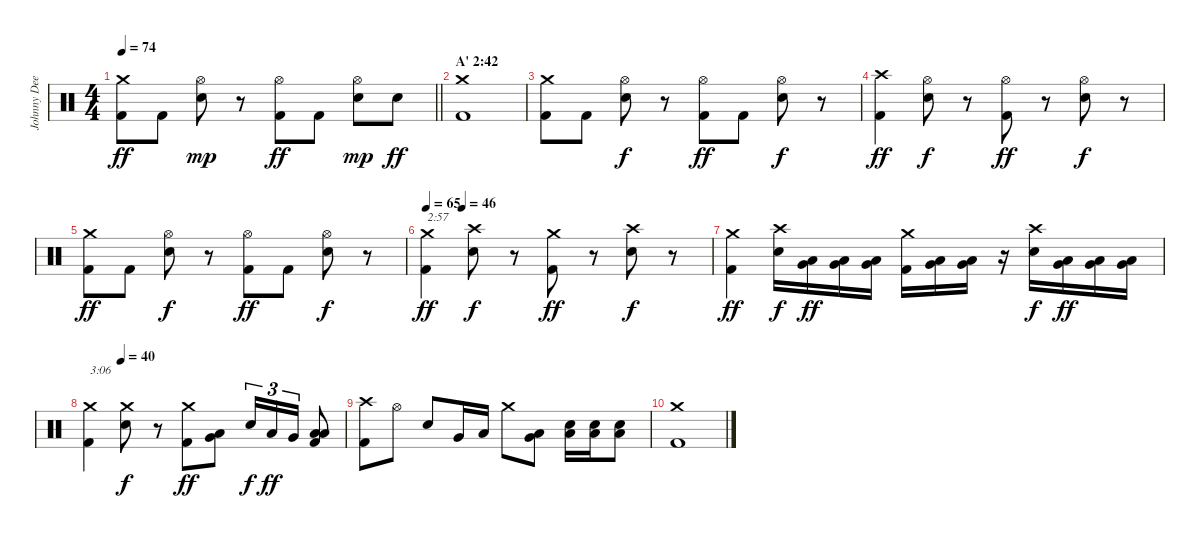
\track ("Johnny Dee (drums)" "Johnny Dee") {instrument percussion}
\staff {score}
\articulation defaults
\ts (4 4)
\tempo 74
\clef neutral
\barLineRight lightlight
\ks c
("Crash medium (hit)" "Kick (hit) 2").8{dy ff} "Kick (hit) 2".8 ("Hi-Hat (open)" "Electric Snare (hit)").8{dy mp} r.8 ("Hi-Hat (open)" "Kick (hit) 2").8{dy ff} "Kick (hit) 2".8 ("Hi-Hat (open)" "Electric Snare (hit)").8{dy mp} "Electric Snare (hit)".8{dy ff} |
\section ("" "A' 2:42")
("Crash medium (hit)" "Kick (hit) 2").1 |
("Crash medium (hit)" "Kick (hit) 2").8 "Kick (hit) 2".8 ("Hi-Hat (open)" "Electric Snare (hit)").8{dy f} r.8 ("Hi-Hat (open)" "Kick (hit) 2").8{dy ff} "Kick (hit) 2".8 ("Hi-Hat (open)" "Electric Snare (hit)").8{dy f} r.8 |
("Crash high (hit)" "Kick (hit) 2").4{dy ff} ("Hi-Hat (open)" "Electric Snare (hit)").8{dy f} r.8 ("Hi-Hat (open)" "Kick (hit) 2").8{dy ff} r.8 ("Hi-Hat (open)" "Electric Snare (hit)").8{dy f} r.8 |
("Crash medium (hit)" "Kick (hit) 2").8{dy ff} "Kick (hit) 2".8 ("Hi-Hat (open)" "Electric Snare (hit)").8{dy f} r.8 ("Hi-Hat (open)" "Kick (hit) 2").8{dy ff} "Kick (hit) 2".8 ("Hi-Hat (open)" "Electric Snare (hit)").8{dy f} r.8 |
\tempo 65
\tempo (46 0.125)
("Crash medium (hit)" "Kick (hit) 2").4{txt "2:57" dy ff} ("Crash high (hit)" "Electric Snare (hit)").8{dy f} r.8 ("Crash medium (hit)" "Kick (hit) 2").8{dy ff} r.8 ("Crash high (hit)" "Electric Snare (hit)").8{dy f} r.8 |
("Crash medium (hit)" "Kick (hit) 2").4{dy ff} ("Crash high (hit)" "Electric Snare (hit)").16{dy f} ("Low Tom (hit)" "Very Low Tom (hit)").16{dy ff} ("Very Low Tom (hit)" "Low Floor Tom (hit)").16 ("Very Low Tom (hit)" "Low Floor Tom (hit)").16 ("Crash medium (hit)" "Kick (hit) 2").16 ("Very Low Tom (hit)" "Low Floor Tom (hit)").16 ("Low Tom (hit)" "Very Low Tom (hit)").16 r.16 ("Crash high (hit)" "Electric Snare (hit)").16{dy f} ("Low Tom (hit)" "Very Low Tom (hit)").16{dy ff} ("Low Tom (hit)" "Very Low Tom (hit)").16 ("Very Low Tom (hit)" "Low Floor Tom (hit)").16 |
\tempo (40 0.125)
("Crash medium (hit)" "Kick (hit) 2").4{txt "3:06"} ("Crash medium (hit)" "Electric Snare (hit)").8{dy f} r.8 ("Crash medium (hit)" "Kick (hit) 2").8{dy ff} ("Very Low Tom (hit)" "Low Floor Tom (hit)").8 "Electric Snare (hit)".16{tu (3 2) dy f} "Low Tom (hit)".16{tu (3 2) dy ff} "Very Low Tom (hit)".16{tu (3 2)} ("Low Floor Tom (hit)" "Low Floor Tom (hit)" "Kick (hit) 2").8 |
("Crash high (hit)" "Kick (hit) 2").8 "Hi-Hat (open)".8 "Electric Snare (hit)".8 "Very Low Tom (hit)".16 "Low Floor Tom (hit)".16 "Crash medium (hit)".8 ("Very Low Tom (hit)" "Low Floor Tom (hit)").8 ("Electric Snare (hit)" "Low Floor Tom (hit)").16 ("Electric Snare (hit)" "Low Floor Tom (hit)").16 ("Electric Snare (hit)" "Low Floor Tom (hit)").8 |
("Crash medium (hit)" "Kick (hit) 2").1
